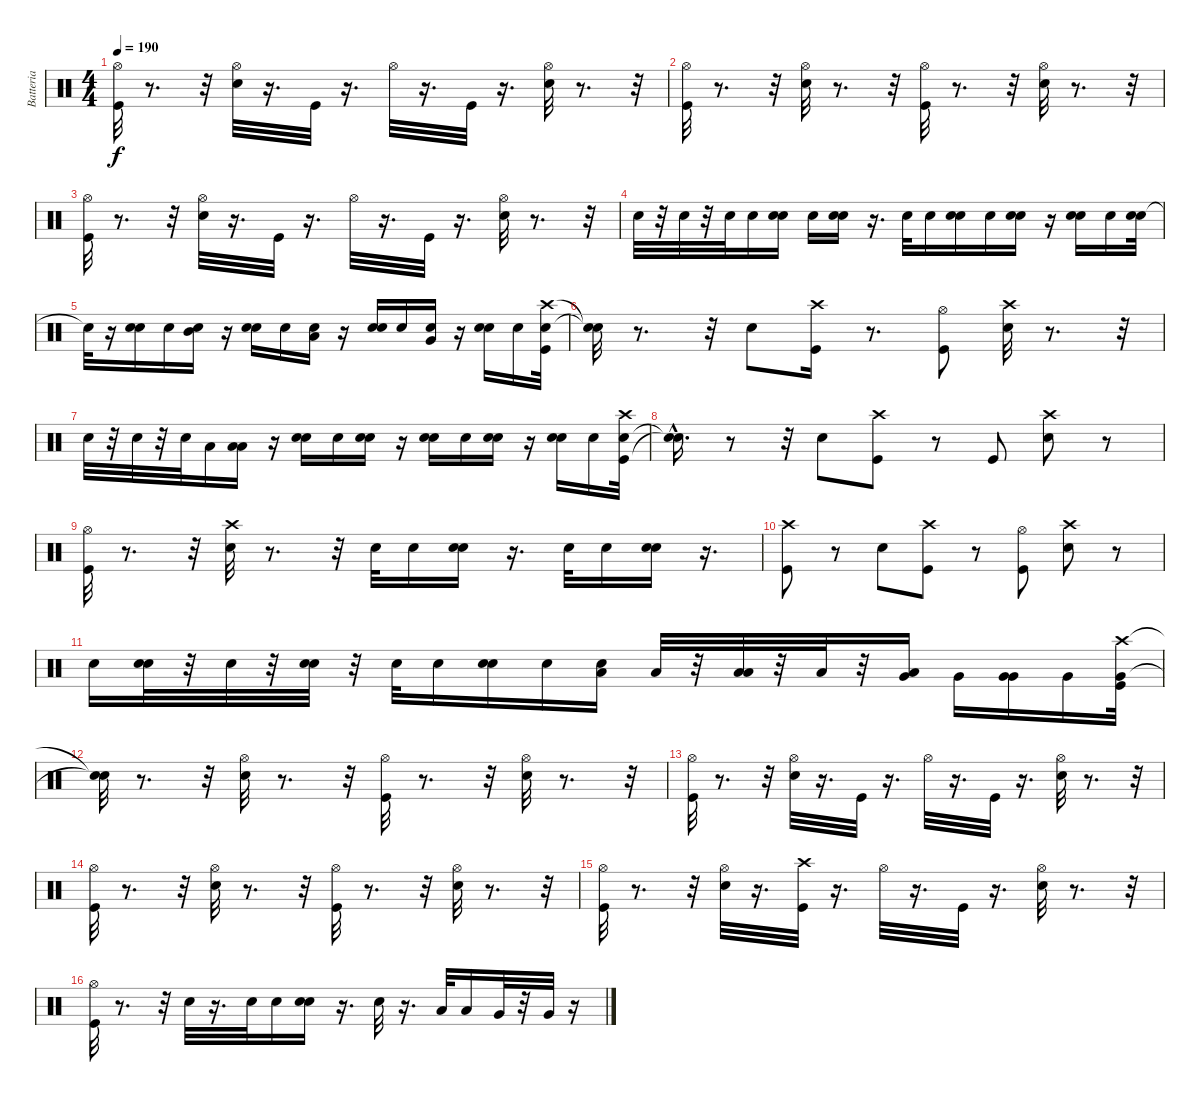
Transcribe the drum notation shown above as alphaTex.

\track ("Batteria" "Batteria") {instrument percussion}
\staff {score}
\articulation defaults
\ts (4 4)
\tempo 190
\clef neutral
\ks c
("Kick (hit)" "Hi-Hat (open)").32{dy f} r.8{d} r.32 ("Hi-Hat (open)" "Snare (hit) 2").32 r.16{d} "Kick (hit)".32 r.16{d} "Hi-Hat (open)".32 r.16{d} "Kick (hit)".32 r.16{d} ("Hi-Hat (open)" "Snare (hit) 2").32 r.8{d} r.32 |
("Hi-Hat (open)" "Kick (hit)").32 r.8{d} r.32 ("Snare (hit) 2" "Hi-Hat (open)").32 r.8{d} r.32 ("Hi-Hat (open)" "Kick (hit)").32 r.8{d} r.32 ("Hi-Hat (open)" "Snare (hit) 2").32 r.8{d} r.32 |
("Kick (hit)" "Hi-Hat (open)").32 r.8{d} r.32 ("Snare (hit) 2" "Hi-Hat (open)").32 r.16{d} "Kick (hit)".32 r.16{d} "Hi-Hat (open)".32 r.16{d} "Kick (hit)".32 r.16{d} ("Snare (hit) 2" "Hi-Hat (open)").32 r.8{d} r.32 |
"Snare (hit) 2".32 r.32 "Snare (hit) 2".32 r.32 "Snare (hit) 2".32 "Snare (hit) 2".16 ("Snare (hit) 2" "Snare (hit) 2").16 "Snare (hit) 2".16 ("Snare (hit) 2" "Snare (hit) 2").16 r.16{d} "Snare (hit) 2".32 "Snare (hit) 2".16 ("Snare (hit) 2" "Snare (hit) 2").16 "Snare (hit) 2".16 ("Snare (hit) 2" "Snare (hit) 2").16 r.16 ("Snare (hit) 2" "Snare (hit) 2").16 "Snare (hit) 2".16 ("Snare (hit) 2" "Snare (hit) 2").32 |
"Snare (hit)"{t}.32 r.16 ("Snare (hit) 2" "Snare (hit) 2").16 "Snare (hit) 2".16 ("Snare (hit) 2" "Mid Tom (hit)").16 r.16 ("Snare (hit) 2" "Snare (hit) 2").16 "Snare (hit) 2".16 ("Snare (hit) 2" "Low Tom (hit)").16 r.16 ("Snare (hit) 2" "Snare (hit) 2").16 "Snare (hit) 2".16 ("Snare (hit) 2" "Very Low Tom (hit)").16 r.16 ("Snare (hit) 2" "Snare (hit) 2").16 "Snare (hit) 2".16 ("Snare (hit) 2" "Crash high (hit)" "Kick (hit)").32 |
("Snare (hit)"{t} "Snare (hit)"{t}).32 r.8{d} r.32 "Snare (hit) 2".8 ("Crash high (hit)" "Kick (hit)").16 r.8{d} ("Hi-Hat (open)" "Kick (hit)").8 ("Crash high (hit)" "Snare (hit) 2").32 r.8{d} r.32 |
"Snare (hit) 2".32 r.32 "Snare (hit) 2".32 r.32 "Snare (hit) 2".32 "Low Tom (hit)".16 ("Low Tom (hit)" "Low Tom (hit)").16 r.16 ("Snare (hit) 2" "Snare (hit) 2").16 "Snare (hit) 2".16 ("Snare (hit) 2" "Snare (hit) 2").16 r.16 ("Snare (hit) 2" "Snare (hit) 2").16 "Snare (hit) 2".16 ("Snare (hit) 2" "Snare (hit) 2").16 r.16 ("Snare (hit) 2" "Snare (hit) 2").16 "Snare (hit) 2".16 ("Snare (hit) 2" "Kick (hit)" "Crash high (hit)").32 |
("Snare (hit)"{hac t} "Snare (hit)"{hac t}).16{d} r.8 r.32 "Snare (hit) 2".8 ("Crash high (hit)" "Kick (hit)").8 r.8 "Kick (hit)".8 ("Crash high (hit)" "Snare (hit) 2").8 r.8 |
("Kick (hit)" "Hi-Hat (open)").32 r.8{d} r.32 ("Crash high (hit)" "Snare (hit) 2").32 r.8{d} r.32 "Snare (hit) 2".32 "Snare (hit) 2".16 ("Snare (hit) 2" "Snare (hit) 2").16 r.16{d} "Snare (hit) 2".32 "Snare (hit) 2".16 ("Snare (hit) 2" "Snare (hit) 2").16 r.16{d} |
("Kick (hit)" "Crash high (hit)").8 r.8 "Snare (hit) 2".8 ("Kick (hit)" "Crash high (hit)").8 r.8 ("Hi-Hat (open)" "Kick (hit)").8 ("Snare (hit) 2" "Crash high (hit)").8 r.8 |
"Snare (hit) 2".16 ("Snare (hit) 2" "Snare (hit) 2").32 r.32 "Snare (hit) 2".32 r.32 ("Snare (hit) 2" "Snare (hit) 2").32 r.32 "Snare (hit) 2".32 "Snare (hit) 2".16 ("Snare (hit) 2" "Snare (hit) 2").16 "Snare (hit) 2".16 ("Snare (hit) 2" "Low Tom (hit)").16 "Low Tom (hit)".32 r.32 ("Low Tom (hit)" "Low Tom (hit)").32 r.32 "Low Tom (hit)".32 r.32 ("Low Tom (hit)" "Very Low Tom (hit)").16 "Very Low Tom (hit)".16 ("Very Low Tom (hit)" "Very Low Tom (hit)").16 "Very Low Tom (hit)".16 ("Very Low Tom (hit)" "Crash high (hit)" "Kick (hit)").32 |
("Snare (hit)"{t} "Snare (hit)"{t}).32 r.8{d} r.32 ("Hi-Hat (open)" "Snare (hit) 2").32 r.8{d} r.32 ("Hi-Hat (open)" "Kick (hit)").32 r.8{d} r.32 ("Hi-Hat (open)" "Snare (hit) 2").32 r.8{d} r.32 |
("Hi-Hat (open)" "Kick (hit)").32 r.8{d} r.32 ("Hi-Hat (open)" "Snare (hit) 2").32 r.16{d} "Kick (hit)".32 r.16{d} "Hi-Hat (open)".32 r.16{d} "Kick (hit)".32 r.16{d} ("Snare (hit) 2" "Hi-Hat (open)").32 r.8{d} r.32 |
("Kick (hit)" "Hi-Hat (open)").32 r.8{d} r.32 ("Snare (hit) 2" "Hi-Hat (open)").32 r.8{d} r.32 ("Hi-Hat (open)" "Kick (hit)").32 r.8{d} r.32 ("Snare (hit) 2" "Hi-Hat (open)").32 r.8{d} r.32 |
("Kick (hit)" "Hi-Hat (open)").32 r.8{d} r.32 ("Snare (hit) 2" "Hi-Hat (open)").32 r.16{d} ("Kick (hit)" "Crash high (hit)").32 r.16{d} "Hi-Hat (open)".32 r.16{d} "Kick (hit)".32 r.16{d} ("Snare (hit) 2" "Hi-Hat (open)").32 r.8{d} r.32 |
("Hi-Hat (open)" "Kick (hit)").32 r.8{d} r.32 "Snare (hit) 2".32 r.16{d} "Snare (hit) 2".32 "Snare (hit) 2".16 ("Snare (hit) 2" "Snare (hit) 2").16 r.16{d} "Snare (hit) 2".32 r.16{d} "Low Tom (hit)".32 "Low Tom (hit)".16 "Very Low Tom (hit)".32 r.32 "Very Low Tom (hit)".32 r.16
